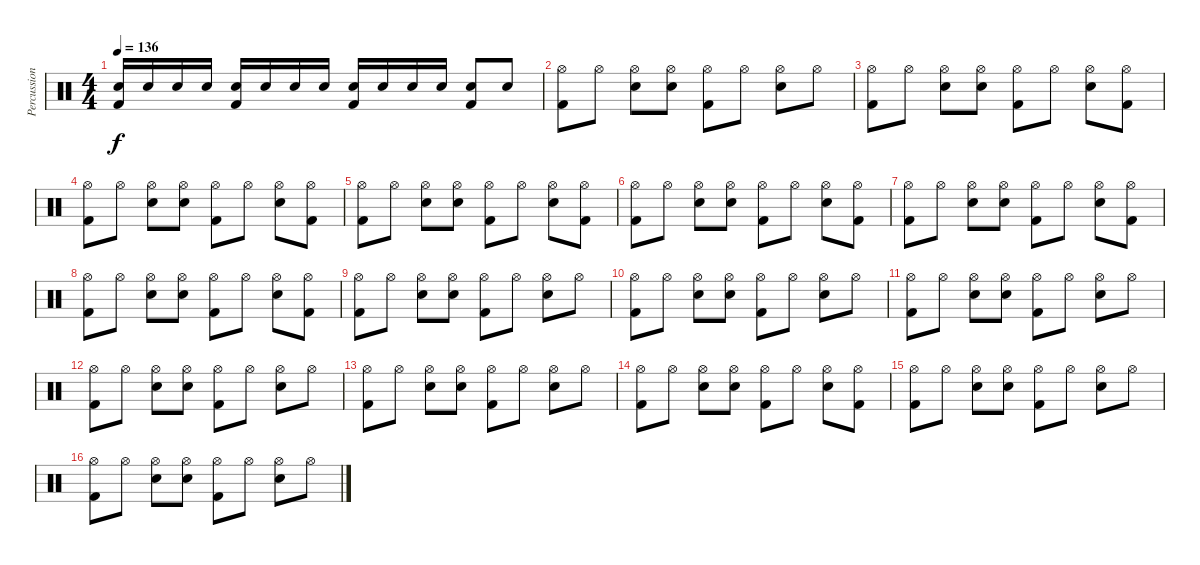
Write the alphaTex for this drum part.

\track ("Percussion" "Percussion") {instrument percussion}
\staff {score}
\articulation defaults
\ts (4 4)
\tempo 136
\clef neutral
\ks c
("Snare (hit) 2" "Kick (hit) 2").16{dy f} "Snare (hit) 2".16 "Snare (hit) 2".16 "Snare (hit) 2".16 ("Snare (hit) 2" "Kick (hit) 2").16 "Snare (hit) 2".16 "Snare (hit) 2".16 "Snare (hit) 2".16 ("Snare (hit) 2" "Kick (hit) 2").16 "Snare (hit) 2".16 "Snare (hit) 2".16 "Snare (hit) 2".16 ("Snare (hit) 2" "Kick (hit) 2").8 "Snare (hit) 2".8 |
("Hi-Hat (open)" "Kick (hit) 2").8 "Hi-Hat (open)".8 ("Hi-Hat (open)" "Snare (hit) 2").8 ("Hi-Hat (open)" "Snare (hit) 2").8 ("Hi-Hat (open)" "Kick (hit) 2").8 "Hi-Hat (open)".8 ("Hi-Hat (open)" "Snare (hit) 2").8 "Hi-Hat (open)".8 |
("Hi-Hat (open)" "Kick (hit) 2").8 "Hi-Hat (open)".8 ("Hi-Hat (open)" "Snare (hit) 2").8 ("Hi-Hat (open)" "Snare (hit) 2").8 ("Hi-Hat (open)" "Kick (hit) 2").8 "Hi-Hat (open)".8 ("Hi-Hat (open)" "Snare (hit) 2").8 ("Hi-Hat (open)" "Kick (hit) 2").8 |
("Hi-Hat (open)" "Kick (hit) 2").8 "Hi-Hat (open)".8 ("Hi-Hat (open)" "Snare (hit) 2").8 ("Hi-Hat (open)" "Snare (hit) 2").8 ("Hi-Hat (open)" "Kick (hit) 2").8 "Hi-Hat (open)".8 ("Hi-Hat (open)" "Snare (hit) 2").8 ("Hi-Hat (open)" "Kick (hit) 2").8 |
("Hi-Hat (open)" "Kick (hit) 2").8 "Hi-Hat (open)".8 ("Hi-Hat (open)" "Snare (hit) 2").8 ("Hi-Hat (open)" "Snare (hit) 2").8 ("Hi-Hat (open)" "Kick (hit) 2").8 "Hi-Hat (open)".8 ("Hi-Hat (open)" "Snare (hit) 2").8 ("Hi-Hat (open)" "Kick (hit) 2").8 |
("Hi-Hat (open)" "Kick (hit) 2").8 "Hi-Hat (open)".8 ("Hi-Hat (open)" "Snare (hit) 2").8 ("Hi-Hat (open)" "Snare (hit) 2").8 ("Hi-Hat (open)" "Kick (hit) 2").8 "Hi-Hat (open)".8 ("Hi-Hat (open)" "Snare (hit) 2").8 ("Hi-Hat (open)" "Kick (hit) 2").8 |
("Hi-Hat (open)" "Kick (hit) 2").8 "Hi-Hat (open)".8 ("Hi-Hat (open)" "Snare (hit) 2").8 ("Hi-Hat (open)" "Snare (hit) 2").8 ("Hi-Hat (open)" "Kick (hit) 2").8 "Hi-Hat (open)".8 ("Hi-Hat (open)" "Snare (hit) 2").8 ("Hi-Hat (open)" "Kick (hit) 2").8 |
("Hi-Hat (open)" "Kick (hit) 2").8 "Hi-Hat (open)".8 ("Hi-Hat (open)" "Snare (hit) 2").8 ("Hi-Hat (open)" "Snare (hit) 2").8 ("Hi-Hat (open)" "Kick (hit) 2").8 "Hi-Hat (open)".8 ("Hi-Hat (open)" "Snare (hit) 2").8 ("Hi-Hat (open)" "Kick (hit) 2").8 |
("Hi-Hat (open)" "Kick (hit) 2").8 "Hi-Hat (open)".8 ("Hi-Hat (open)" "Snare (hit) 2").8 ("Hi-Hat (open)" "Snare (hit) 2").8 ("Hi-Hat (open)" "Kick (hit) 2").8 "Hi-Hat (open)".8 ("Hi-Hat (open)" "Snare (hit) 2").8 "Hi-Hat (open)".8 |
("Hi-Hat (open)" "Kick (hit) 2").8 "Hi-Hat (open)".8 ("Hi-Hat (open)" "Snare (hit) 2").8 ("Hi-Hat (open)" "Snare (hit) 2").8 ("Hi-Hat (open)" "Kick (hit) 2").8 "Hi-Hat (open)".8 ("Hi-Hat (open)" "Snare (hit) 2").8 "Hi-Hat (open)".8 |
("Hi-Hat (open)" "Kick (hit) 2").8 "Hi-Hat (open)".8 ("Hi-Hat (open)" "Snare (hit) 2").8 ("Hi-Hat (open)" "Snare (hit) 2").8 ("Hi-Hat (open)" "Kick (hit) 2").8 "Hi-Hat (open)".8 ("Hi-Hat (open)" "Snare (hit) 2").8 "Hi-Hat (open)".8 |
("Hi-Hat (open)" "Kick (hit) 2").8 "Hi-Hat (open)".8 ("Hi-Hat (open)" "Snare (hit) 2").8 ("Hi-Hat (open)" "Snare (hit) 2").8 ("Hi-Hat (open)" "Kick (hit) 2").8 "Hi-Hat (open)".8 ("Hi-Hat (open)" "Snare (hit) 2").8 "Hi-Hat (open)".8 |
("Hi-Hat (open)" "Kick (hit) 2").8 "Hi-Hat (open)".8 ("Hi-Hat (open)" "Snare (hit) 2").8 ("Hi-Hat (open)" "Snare (hit) 2").8 ("Hi-Hat (open)" "Kick (hit) 2").8 "Hi-Hat (open)".8 ("Hi-Hat (open)" "Snare (hit) 2").8 "Hi-Hat (open)".8 |
("Hi-Hat (open)" "Kick (hit) 2").8 "Hi-Hat (open)".8 ("Hi-Hat (open)" "Snare (hit) 2").8 ("Hi-Hat (open)" "Snare (hit) 2").8 ("Hi-Hat (open)" "Kick (hit) 2").8 "Hi-Hat (open)".8 ("Hi-Hat (open)" "Snare (hit) 2").8 ("Hi-Hat (open)" "Kick (hit) 2").8 |
("Hi-Hat (open)" "Kick (hit) 2").8 "Hi-Hat (open)".8 ("Hi-Hat (open)" "Snare (hit) 2").8 ("Hi-Hat (open)" "Snare (hit) 2").8 ("Hi-Hat (open)" "Kick (hit) 2").8 "Hi-Hat (open)".8 ("Hi-Hat (open)" "Snare (hit) 2").8 "Hi-Hat (open)".8 |
("Hi-Hat (open)" "Kick (hit) 2").8 "Hi-Hat (open)".8 ("Hi-Hat (open)" "Snare (hit) 2").8 ("Hi-Hat (open)" "Snare (hit) 2").8 ("Hi-Hat (open)" "Kick (hit) 2").8 "Hi-Hat (open)".8 ("Hi-Hat (open)" "Snare (hit) 2").8 "Hi-Hat (open)".8
